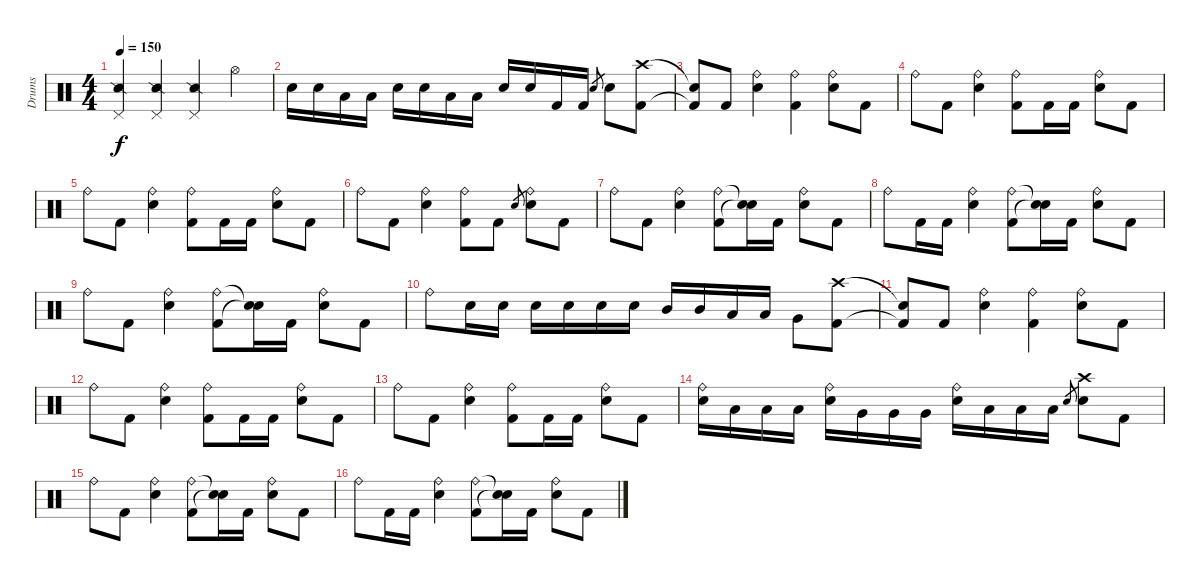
\track ("Drums" "Drums") {instrument percussion}
\staff {score}
\articulation defaults
\ts (4 4)
\tempo 150
\clef neutral
\ks c
("Pedal Hi-Hat (hit)" "Snare (side stick) 2").4{dy f} ("Pedal Hi-Hat (hit)" "Snare (side stick) 2").4 ("Pedal Hi-Hat (hit)" "Snare (side stick) 2").4 "Hi-Hat (open)".4 |
"Electric Snare (hit)".16 "Electric Snare (hit)".16 "Low Tom (hit)".16 "Low Tom (hit)".16 "Electric Snare (hit)".16 "Electric Snare (hit)".16 "Low Tom (hit)".16 "Low Tom (hit)".16 "Electric Snare (hit)".16 "Electric Snare (hit)".16 "Kick (hit) 2".16 "Kick (hit) 2".16 "Electric Snare (hit)".8{gr} "Electric Snare (hit)".8 ("Crash high (hit)" "Kick (hit) 2").8 |
("Snare (hit)"{t} "Kick (hit) 2"{t}).8 "Kick (hit) 2".8 ("Ride (bell)" "Electric Snare (hit)").4 ("Ride (bell)" "Kick (hit) 2").4 ("Ride (bell)" "Electric Snare (hit)").8 "Kick (hit) 2".8 |
"Ride (bell)".8 "Kick (hit) 2".8 ("Ride (bell)" "Electric Snare (hit)").4 ("Ride (bell)" "Kick (hit) 2").8 "Kick (hit) 2".16 "Kick (hit) 2".16 ("Ride (bell)" "Electric Snare (hit)").8 "Kick (hit) 2".8 |
"Ride (bell)".8 "Kick (hit) 2".8 ("Ride (bell)" "Electric Snare (hit)").4 ("Ride (bell)" "Kick (hit) 2").8 "Kick (hit) 2".16 "Kick (hit) 2".16 ("Ride (bell)" "Electric Snare (hit)").8 "Kick (hit) 2".8 |
"Ride (bell)".8 "Kick (hit) 2".8 ("Ride (bell)" "Electric Snare (hit)").4 ("Ride (bell)" "Kick (hit) 2").8 "Kick (hit) 2".8 "Electric Snare (hit)".8{gr} ("Ride (bell)" "Electric Snare (hit)").8 "Kick (hit) 2".8 |
"Ride (bell)".8 "Kick (hit) 2".8 ("Ride (bell)" "Electric Snare (hit)").4 ("Ride (bell)" "Kick (hit) 2").8 ("Snare (hit)"{t} "Snare (hit)"{t}).16 "Kick (hit) 2".16 ("Ride (bell)" "Electric Snare (hit)").8 "Kick (hit) 2".8 |
"Ride (bell)".8 "Kick (hit) 2".16 "Kick (hit) 2".16 ("Ride (bell)" "Electric Snare (hit)").4 ("Ride (bell)" "Kick (hit) 2").8 ("Snare (hit)"{t} "Snare (hit)"{t}).16 "Kick (hit) 2".16 ("Ride (bell)" "Electric Snare (hit)").8 "Kick (hit) 2".8 |
"Ride (bell)".8 "Kick (hit) 2".8 ("Ride (bell)" "Electric Snare (hit)").4 ("Ride (bell)" "Kick (hit) 2").8 ("Snare (hit)"{t} "Snare (hit)"{t}).16 "Kick (hit) 2".16 ("Ride (bell)" "Electric Snare (hit)").8 "Kick (hit) 2".8 |
"Ride (bell)".8 "Electric Snare (hit)".16 "Electric Snare (hit)".16 "Electric Snare (hit)".16 "Electric Snare (hit)".16 "Electric Snare (hit)".16 "Electric Snare (hit)".16 "Mid Tom (hit)".16 "Mid Tom (hit)".16 "Low Tom (hit)".16 "Low Tom (hit)".16 "Very Low Tom (hit)".8 ("Crash high (hit)" "Kick (hit) 2").8 |
("Snare (hit)"{t} "Kick (hit) 2"{t}).8 "Kick (hit) 2".8 ("Ride (bell)" "Electric Snare (hit)").4 ("Ride (bell)" "Kick (hit) 2").4 ("Ride (bell)" "Electric Snare (hit)").8 "Kick (hit) 2".8 |
"Ride (bell)".8 "Kick (hit) 2".8 ("Ride (bell)" "Electric Snare (hit)").4 ("Ride (bell)" "Kick (hit) 2").8 "Kick (hit) 2".16 "Kick (hit) 2".16 ("Ride (bell)" "Electric Snare (hit)").8 "Kick (hit) 2".8 |
"Ride (bell)".8 "Kick (hit) 2".8 ("Ride (bell)" "Electric Snare (hit)").4 ("Ride (bell)" "Kick (hit) 2").8 "Kick (hit) 2".16 "Kick (hit) 2".16 ("Ride (bell)" "Electric Snare (hit)").8 "Kick (hit) 2".8 |
("Ride (bell)" "Electric Snare (hit)").16 "Low Tom (hit)".16 "Low Tom (hit)".16 "Low Tom (hit)".16 ("Ride (bell)" "Electric Snare (hit)").16 "Very Low Tom (hit)".16 "Very Low Tom (hit)".16 "Very Low Tom (hit)".16 ("Ride (bell)" "Electric Snare (hit)").16 "Low Tom (hit)".16 "Low Tom (hit)".16 "Low Tom (hit)".16 "Electric Snare (hit)".8{gr} ("Crash high (hit)" "Electric Snare (hit)").8 "Kick (hit) 2".8 |
"Ride (bell)".8 "Kick (hit) 2".8 ("Ride (bell)" "Electric Snare (hit)").4 ("Ride (bell)" "Kick (hit) 2").8 ("Snare (hit)"{t} "Snare (hit)"{t}).16 "Kick (hit) 2".16 ("Ride (bell)" "Electric Snare (hit)").8 "Kick (hit) 2".8 |
"Ride (bell)".8 "Kick (hit) 2".16 "Kick (hit) 2".16 ("Ride (bell)" "Electric Snare (hit)").4 ("Ride (bell)" "Kick (hit) 2").8 ("Snare (hit)"{t} "Snare (hit)"{t}).16 "Kick (hit) 2".16 ("Ride (bell)" "Electric Snare (hit)").8 "Kick (hit) 2".8
